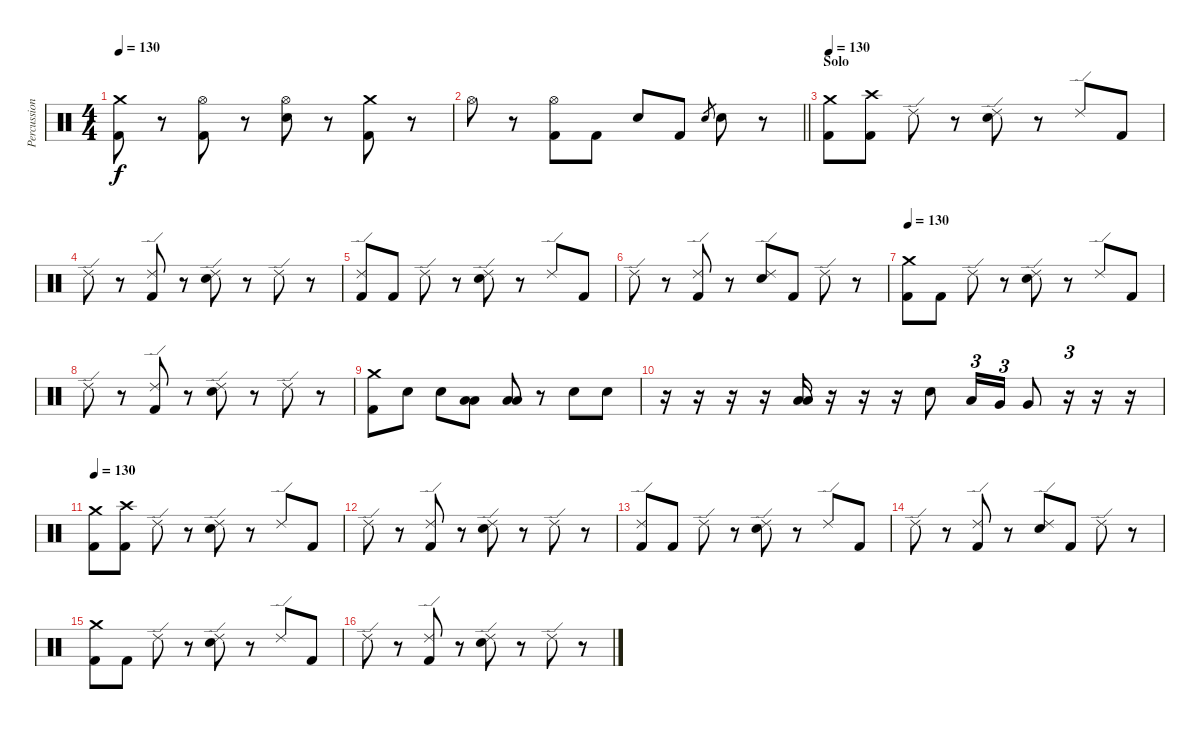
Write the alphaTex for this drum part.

\track ("Percussion" "Percussion") {instrument percussion}
\staff {score}
\articulation defaults
\ts (4 4)
\tempo 130
\clef neutral
\ks c
("Crash medium (hit)" "Kick (hit) 2").8{dy f} r.8 ("Hi-Hat (open)" "Kick (hit) 2").8 r.8 ("Hi-Hat (open)" "Electric Snare (hit)").8 r.8 ("Crash medium (hit)" "Kick (hit) 2").8 r.8 |
\barLineRight lightlight "Hi-Hat (open)".8
r.8 ("Hi-Hat (open)" "Kick (hit) 2").8 "Kick (hit) 2".8 "Electric Snare (hit)".8 "Kick (hit) 2".8 "Electric Snare (hit)".8{gr} "Electric Snare (hit)".8 r.8 |
\section ("" "Solo")
\tempo 130
("Crash medium (hit)" "Kick (hit) 2").8 ("Crash high (hit)" "Kick (hit) 2").8 "Ride (edge) 2".8 r.8 ("Ride (edge) 2" "Electric Snare (hit)").8 r.8 "Ride (edge) 2".8 "Kick (hit) 2".8 |
"Ride (edge) 2".8 r.8 ("Ride (edge) 2" "Kick (hit) 2").8 r.8 ("Ride (edge) 2" "Electric Snare (hit)").8 r.8 "Ride (edge) 2".8 r.8 |
("Ride (edge) 2" "Kick (hit) 2").8 "Kick (hit) 2".8 "Ride (edge) 2".8 r.8 ("Ride (edge) 2" "Electric Snare (hit)").8 r.8 "Ride (edge) 2".8 "Kick (hit) 2".8 |
"Ride (edge) 2".8 r.8 ("Ride (edge) 2" "Kick (hit) 2").8 r.8 ("Ride (edge) 2" "Electric Snare (hit)").8 "Kick (hit) 2".8 "Ride (edge) 2".8 r.8 |
\tempo 130
("Crash medium (hit)" "Kick (hit) 2").8 "Kick (hit) 2".8 "Ride (edge) 2".8 r.8 ("Ride (edge) 2" "Electric Snare (hit)").8 r.8 "Ride (edge) 2".8 "Kick (hit) 2".8 |
"Ride (edge) 2".8 r.8 ("Ride (edge) 2" "Kick (hit) 2").8 r.8 ("Ride (edge) 2" "Electric Snare (hit)").8 r.8 "Ride (edge) 2".8 r.8 |
("Crash medium (hit)" "Kick (hit) 2").8 "Electric Snare (hit)".8 "Electric Snare (hit)".8 ("Low Tom (hit)" "Low Tom (hit)").8 ("Low Tom (hit)" "Low Tom (hit)").8 r.8 "Electric Snare (hit)".8 "Electric Snare (hit)".8 |
r.16 r.16 r.16 r.16 ("Low Tom (hit)" "Low Tom (hit)").16 r.16 r.16 r.16 "Electric Snare (hit)".8 "Low Tom (hit)".16{tu (3 2)} "Very Low Tom (hit)".16{tu (3 2)} "Very Low Tom (hit)".8 r.16{tu (3 2)} r.16 r.16 |
\tempo 130
("Crash medium (hit)" "Kick (hit) 2").8 ("Crash high (hit)" "Kick (hit) 2").8 "Ride (edge) 2".8 r.8 ("Ride (edge) 2" "Electric Snare (hit)").8 r.8 "Ride (edge) 2".8 "Kick (hit) 2".8 |
"Ride (edge) 2".8 r.8 ("Ride (edge) 2" "Kick (hit) 2").8 r.8 ("Ride (edge) 2" "Electric Snare (hit)").8 r.8 "Ride (edge) 2".8 r.8 |
("Ride (edge) 2" "Kick (hit) 2").8 "Kick (hit) 2".8 "Ride (edge) 2".8 r.8 ("Ride (edge) 2" "Electric Snare (hit)").8 r.8 "Ride (edge) 2".8 "Kick (hit) 2".8 |
"Ride (edge) 2".8 r.8 ("Ride (edge) 2" "Kick (hit) 2").8 r.8 ("Ride (edge) 2" "Electric Snare (hit)").8 "Kick (hit) 2".8 "Ride (edge) 2".8 r.8 |
("Crash medium (hit)" "Kick (hit) 2").8 "Kick (hit) 2".8 "Ride (edge) 2".8 r.8 ("Ride (edge) 2" "Electric Snare (hit)").8 r.8 "Ride (edge) 2".8 "Kick (hit) 2".8 |
"Ride (edge) 2".8 r.8 ("Ride (edge) 2" "Kick (hit) 2").8 r.8 ("Ride (edge) 2" "Electric Snare (hit)").8 r.8 "Ride (edge) 2".8 r.8
